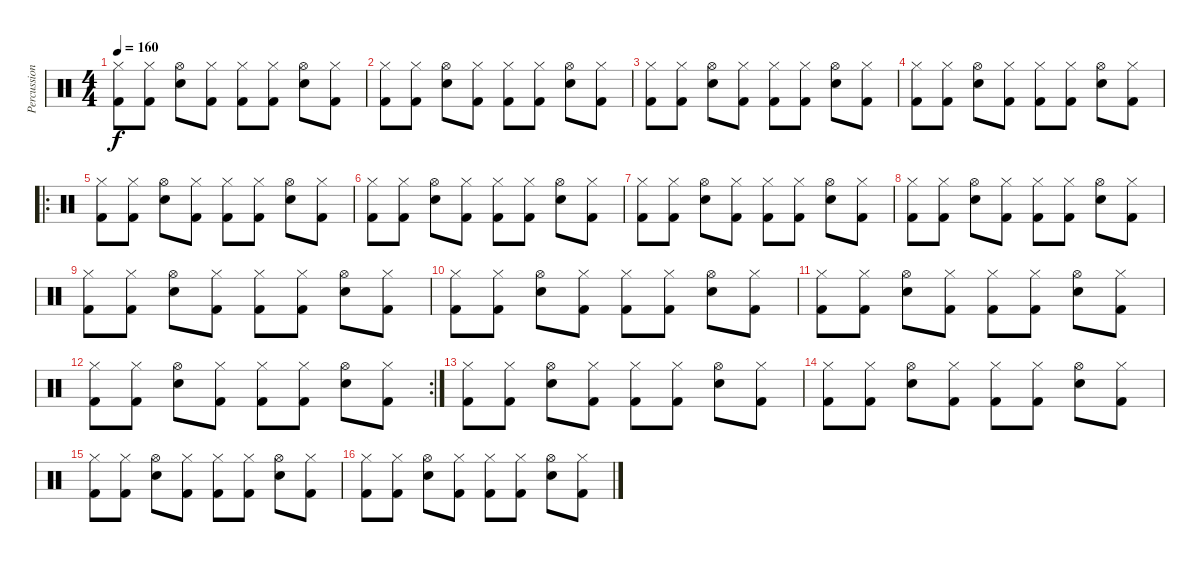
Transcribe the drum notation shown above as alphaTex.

\track ("Percussion" "Percussion") {instrument percussion}
\staff {score}
\articulation defaults
\ts (4 4)
\tempo 160
\clef neutral
\ks c
("Hi-Hat (closed)" "Kick (hit) 2").8{dy f} ("Hi-Hat (closed)" "Kick (hit) 2").8 ("Hi-Hat (open)" "Snare (hit) 2").8 ("Hi-Hat (closed)" "Kick (hit) 2").8 ("Hi-Hat (closed)" "Kick (hit) 2").8 ("Hi-Hat (closed)" "Kick (hit) 2").8 ("Hi-Hat (open)" "Snare (hit) 2").8 ("Hi-Hat (closed)" "Kick (hit) 2").8 |
("Hi-Hat (closed)" "Kick (hit) 2").8 ("Hi-Hat (closed)" "Kick (hit) 2").8 ("Hi-Hat (open)" "Snare (hit) 2").8 ("Hi-Hat (closed)" "Kick (hit) 2").8 ("Hi-Hat (closed)" "Kick (hit) 2").8 ("Hi-Hat (closed)" "Kick (hit) 2").8 ("Hi-Hat (open)" "Snare (hit) 2").8 ("Hi-Hat (closed)" "Kick (hit) 2").8 |
("Hi-Hat (closed)" "Kick (hit) 2").8 ("Hi-Hat (closed)" "Kick (hit) 2").8 ("Hi-Hat (open)" "Snare (hit) 2").8 ("Hi-Hat (closed)" "Kick (hit) 2").8 ("Hi-Hat (closed)" "Kick (hit) 2").8 ("Hi-Hat (closed)" "Kick (hit) 2").8 ("Hi-Hat (open)" "Snare (hit) 2").8 ("Hi-Hat (closed)" "Kick (hit) 2").8 |
("Hi-Hat (closed)" "Kick (hit) 2").8 ("Hi-Hat (closed)" "Kick (hit) 2").8 ("Hi-Hat (open)" "Snare (hit) 2").8 ("Hi-Hat (closed)" "Kick (hit) 2").8 ("Hi-Hat (closed)" "Kick (hit) 2").8 ("Hi-Hat (closed)" "Kick (hit) 2").8 ("Hi-Hat (open)" "Snare (hit) 2").8 ("Hi-Hat (closed)" "Kick (hit) 2").8 |
\ro
("Hi-Hat (closed)" "Kick (hit) 2").8 ("Hi-Hat (closed)" "Kick (hit) 2").8 ("Hi-Hat (open)" "Snare (hit) 2").8 ("Hi-Hat (closed)" "Kick (hit) 2").8 ("Hi-Hat (closed)" "Kick (hit) 2").8 ("Hi-Hat (closed)" "Kick (hit) 2").8 ("Hi-Hat (open)" "Snare (hit) 2").8 ("Hi-Hat (closed)" "Kick (hit) 2").8 |
("Hi-Hat (closed)" "Kick (hit) 2").8 ("Hi-Hat (closed)" "Kick (hit) 2").8 ("Hi-Hat (open)" "Snare (hit) 2").8 ("Hi-Hat (closed)" "Kick (hit) 2").8 ("Hi-Hat (closed)" "Kick (hit) 2").8 ("Hi-Hat (closed)" "Kick (hit) 2").8 ("Hi-Hat (open)" "Snare (hit) 2").8 ("Hi-Hat (closed)" "Kick (hit) 2").8 |
("Hi-Hat (closed)" "Kick (hit) 2").8 ("Hi-Hat (closed)" "Kick (hit) 2").8 ("Hi-Hat (open)" "Snare (hit) 2").8 ("Hi-Hat (closed)" "Kick (hit) 2").8 ("Hi-Hat (closed)" "Kick (hit) 2").8 ("Hi-Hat (closed)" "Kick (hit) 2").8 ("Hi-Hat (open)" "Snare (hit) 2").8 ("Hi-Hat (closed)" "Kick (hit) 2").8 |
("Hi-Hat (closed)" "Kick (hit) 2").8 ("Hi-Hat (closed)" "Kick (hit) 2").8 ("Hi-Hat (open)" "Snare (hit) 2").8 ("Hi-Hat (closed)" "Kick (hit) 2").8 ("Hi-Hat (closed)" "Kick (hit) 2").8 ("Hi-Hat (closed)" "Kick (hit) 2").8 ("Hi-Hat (open)" "Snare (hit) 2").8 ("Hi-Hat (closed)" "Kick (hit) 2").8 |
("Hi-Hat (closed)" "Kick (hit) 2").8 ("Hi-Hat (closed)" "Kick (hit) 2").8 ("Hi-Hat (open)" "Snare (hit) 2").8 ("Hi-Hat (closed)" "Kick (hit) 2").8 ("Hi-Hat (closed)" "Kick (hit) 2").8 ("Hi-Hat (closed)" "Kick (hit) 2").8 ("Hi-Hat (open)" "Snare (hit) 2").8 ("Hi-Hat (closed)" "Kick (hit) 2").8 |
("Hi-Hat (closed)" "Kick (hit) 2").8 ("Hi-Hat (closed)" "Kick (hit) 2").8 ("Hi-Hat (open)" "Snare (hit) 2").8 ("Hi-Hat (closed)" "Kick (hit) 2").8 ("Hi-Hat (closed)" "Kick (hit) 2").8 ("Hi-Hat (closed)" "Kick (hit) 2").8 ("Hi-Hat (open)" "Snare (hit) 2").8 ("Hi-Hat (closed)" "Kick (hit) 2").8 |
("Hi-Hat (closed)" "Kick (hit) 2").8 ("Hi-Hat (closed)" "Kick (hit) 2").8 ("Hi-Hat (open)" "Snare (hit) 2").8 ("Hi-Hat (closed)" "Kick (hit) 2").8 ("Hi-Hat (closed)" "Kick (hit) 2").8 ("Hi-Hat (closed)" "Kick (hit) 2").8 ("Hi-Hat (open)" "Snare (hit) 2").8 ("Hi-Hat (closed)" "Kick (hit) 2").8 |
\rc 2
("Hi-Hat (closed)" "Kick (hit) 2").8 ("Hi-Hat (closed)" "Kick (hit) 2").8 ("Hi-Hat (open)" "Snare (hit) 2").8 ("Hi-Hat (closed)" "Kick (hit) 2").8 ("Hi-Hat (closed)" "Kick (hit) 2").8 ("Hi-Hat (closed)" "Kick (hit) 2").8 ("Hi-Hat (open)" "Snare (hit) 2").8 ("Hi-Hat (closed)" "Kick (hit) 2").8 |
("Hi-Hat (closed)" "Kick (hit) 2").8 ("Hi-Hat (closed)" "Kick (hit) 2").8 ("Hi-Hat (open)" "Snare (hit) 2").8 ("Hi-Hat (closed)" "Kick (hit) 2").8 ("Hi-Hat (closed)" "Kick (hit) 2").8 ("Hi-Hat (closed)" "Kick (hit) 2").8 ("Hi-Hat (open)" "Snare (hit) 2").8 ("Hi-Hat (closed)" "Kick (hit) 2").8 |
("Hi-Hat (closed)" "Kick (hit) 2").8 ("Hi-Hat (closed)" "Kick (hit) 2").8 ("Hi-Hat (open)" "Snare (hit) 2").8 ("Hi-Hat (closed)" "Kick (hit) 2").8 ("Hi-Hat (closed)" "Kick (hit) 2").8 ("Hi-Hat (closed)" "Kick (hit) 2").8 ("Hi-Hat (open)" "Snare (hit) 2").8 ("Hi-Hat (closed)" "Kick (hit) 2").8 |
("Hi-Hat (closed)" "Kick (hit) 2").8 ("Hi-Hat (closed)" "Kick (hit) 2").8 ("Hi-Hat (open)" "Snare (hit) 2").8 ("Hi-Hat (closed)" "Kick (hit) 2").8 ("Hi-Hat (closed)" "Kick (hit) 2").8 ("Hi-Hat (closed)" "Kick (hit) 2").8 ("Hi-Hat (open)" "Snare (hit) 2").8 ("Hi-Hat (closed)" "Kick (hit) 2").8 |
("Hi-Hat (closed)" "Kick (hit) 2").8 ("Hi-Hat (closed)" "Kick (hit) 2").8 ("Hi-Hat (open)" "Snare (hit) 2").8 ("Hi-Hat (closed)" "Kick (hit) 2").8 ("Hi-Hat (closed)" "Kick (hit) 2").8 ("Hi-Hat (closed)" "Kick (hit) 2").8 ("Hi-Hat (open)" "Snare (hit) 2").8 ("Hi-Hat (closed)" "Kick (hit) 2").8
